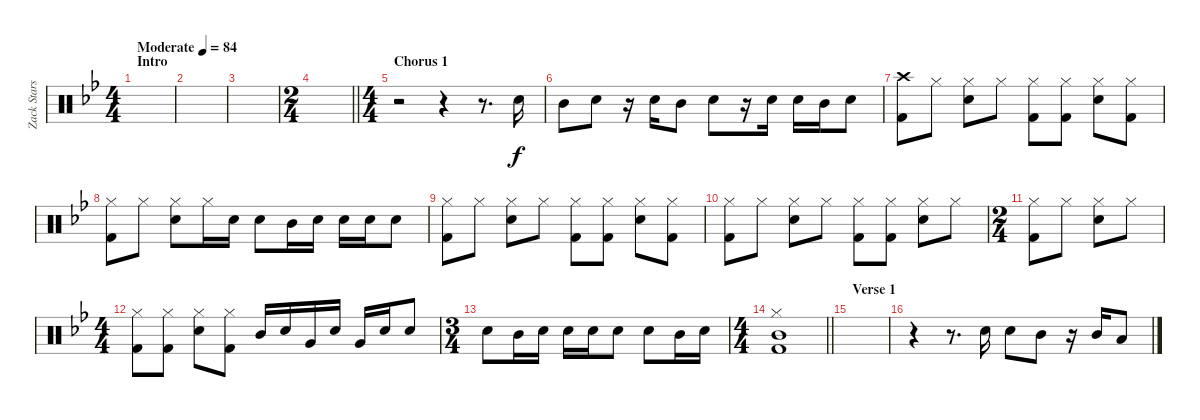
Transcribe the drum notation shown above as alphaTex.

\track ("Zack Starskey" "Zack Stars") {instrument percussion}
\staff {score}
\articulation defaults
\ts (4 4)
\section ("" "Intro")
\tempo (84 "Moderate")
\clef neutral
\ks bb
|
|
|
\ts (2 4)
\barLineRight lightlight
|
\ts (4 4)
\section ("" "Chorus 1")
r.2 r.4 r.8{d} "Snare (hit) 2".16 |
"Mid Tom (hit)".8 "Snare (hit) 2".8 r.16 "Snare (hit) 2".16 "Mid Tom (hit)".8 "Snare (hit) 2".8 r.16 "Snare (hit) 2".16 "Snare (hit) 2".16 "Mid Tom (hit)".16 "Snare (hit) 2".8 |
("Crash high (hit)" "Kick (hit) 2").8 "Hi-Hat (closed)".8 ("Hi-Hat (closed)" "Snare (hit) 2").8 "Hi-Hat (closed)".8 ("Hi-Hat (closed)" "Kick (hit) 2").8 ("Hi-Hat (closed)" "Kick (hit) 2").8 ("Hi-Hat (closed)" "Snare (hit) 2").8 ("Hi-Hat (closed)" "Kick (hit) 2").8 |
("Hi-Hat (closed)" "Kick (hit) 2").8 "Hi-Hat (closed)".8 ("Hi-Hat (closed)" "Snare (hit) 2").8 "Hi-Hat (closed)".16 "Snare (hit) 2".16 "Snare (hit) 2".8 "Mid Tom (hit)".16 "Snare (hit) 2".16 "Snare (hit) 2".16 "Snare (hit) 2".16 "Snare (hit) 2".8 |
("Hi-Hat (closed)" "Kick (hit) 2").8 "Hi-Hat (closed)".8 ("Hi-Hat (closed)" "Snare (hit) 2").8 "Hi-Hat (closed)".8 ("Hi-Hat (closed)" "Kick (hit) 2").8 ("Hi-Hat (closed)" "Kick (hit) 2").8 ("Hi-Hat (closed)" "Snare (hit) 2").8 ("Hi-Hat (closed)" "Kick (hit) 2").8 |
("Hi-Hat (closed)" "Kick (hit) 2").8 "Hi-Hat (closed)".8 ("Hi-Hat (closed)" "Snare (hit) 2").8 "Hi-Hat (closed)".8 ("Hi-Hat (closed)" "Kick (hit) 2").8 ("Hi-Hat (closed)" "Kick (hit) 2").8 ("Hi-Hat (closed)" "Snare (hit) 2").8 "Hi-Hat (closed)".8 |
\ts (2 4)
("Hi-Hat (closed)" "Kick (hit) 2").8 "Hi-Hat (closed)".8 ("Hi-Hat (closed)" "Snare (hit) 2").8 "Hi-Hat (closed)".8 |
\ts (4 4)
("Hi-Hat (closed)" "Kick (hit) 2").8 ("Hi-Hat (closed)" "Kick (hit) 2").8 ("Hi-Hat (closed)" "Snare (hit) 2").8 ("Hi-Hat (closed)" "Kick (hit) 2").8 "Mid Tom (hit)".16 "Snare (hit) 2".16 "Very Low Tom (hit)".16 "Snare (hit) 2".16 "Very Low Tom (hit)".16 "Snare (hit) 2".16 "Snare (hit) 2".8 |
\ts (3 4)
"Snare (hit) 2".8 "Mid Tom (hit)".16 "Snare (hit) 2".16 "Snare (hit) 2".16 "Snare (hit) 2".16 "Snare (hit) 2".8 "Snare (hit) 2".8 "Mid Tom (hit)".16 "Snare (hit) 2".16 |
\ts (4 4)
\barLineRight lightlight
("Hi-Hat (closed)" "Mid Tom (hit)" "Kick (hit) 2").1 |
\section ("" "Verse 1")
|
r.4 r.8{d} "Snare (hit) 2".16 "Snare (hit) 2".8 "Mid Tom (hit)".8 r.16 "Mid Tom (hit)".16 "Low Floor Tom (hit)".8
